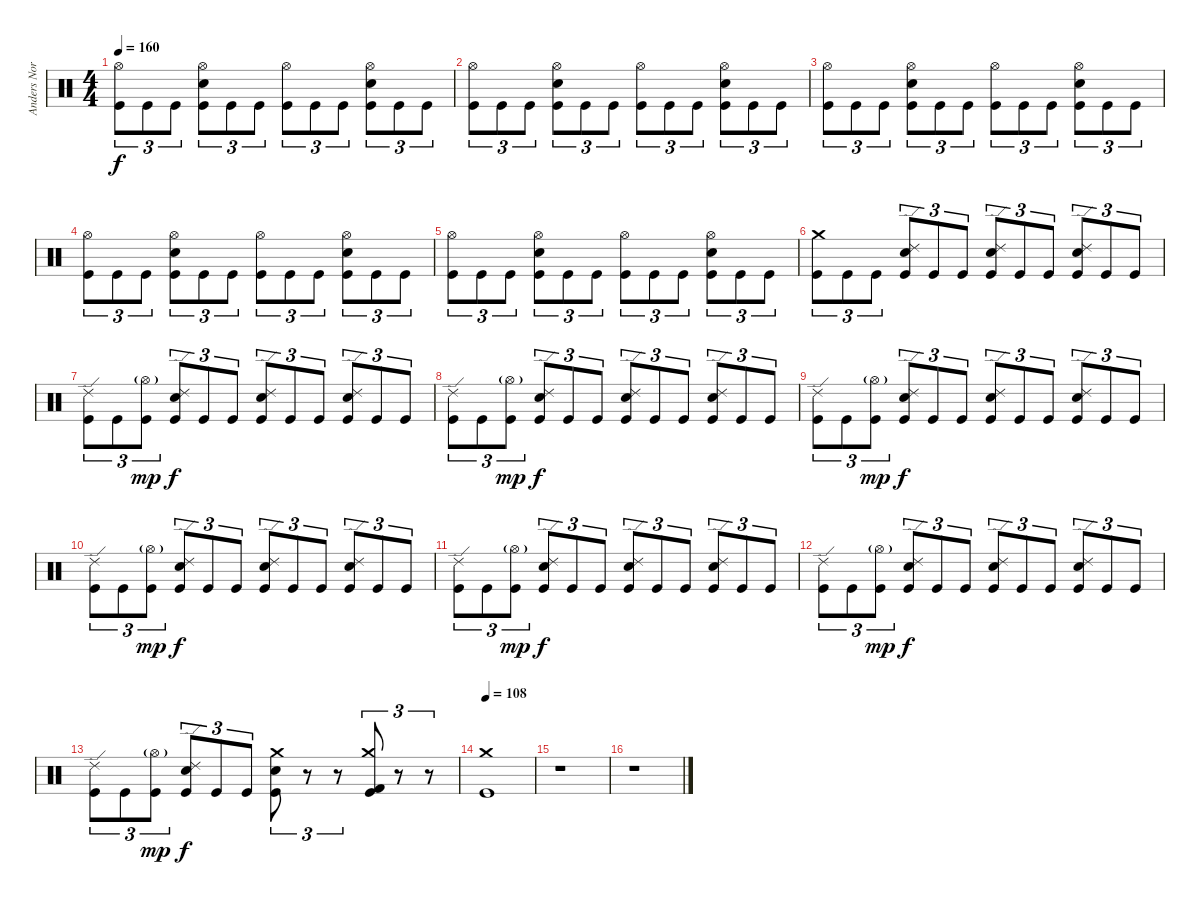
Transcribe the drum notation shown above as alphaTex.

\track ("Anders Nordin" "Anders Nor") {instrument percussion}
\staff {score}
\articulation defaults
\ts (4 4)
\tempo 160
\clef neutral
\ks c
("Hi-Hat (open)" "Kick (hit)").8{tu (3 2) dy f} "Kick (hit)".8{tu (3 2)} "Kick (hit)".8{tu (3 2)} ("Hi-Hat (open)" "Electric Snare (hit)" "Kick (hit)").8{tu (3 2)} "Kick (hit)".8{tu (3 2)} "Kick (hit)".8{tu (3 2)} ("Hi-Hat (open)" "Kick (hit)").8{tu (3 2)} "Kick (hit)".8{tu (3 2)} "Kick (hit)".8{tu (3 2)} ("Hi-Hat (open)" "Electric Snare (hit)" "Kick (hit)").8{tu (3 2)} "Kick (hit)".8{tu (3 2)} "Kick (hit)".8{tu (3 2)} |
("Hi-Hat (open)" "Kick (hit)").8{tu (3 2)} "Kick (hit)".8{tu (3 2)} "Kick (hit)".8{tu (3 2)} ("Hi-Hat (open)" "Electric Snare (hit)" "Kick (hit)").8{tu (3 2)} "Kick (hit)".8{tu (3 2)} "Kick (hit)".8{tu (3 2)} ("Hi-Hat (open)" "Kick (hit)").8{tu (3 2)} "Kick (hit)".8{tu (3 2)} "Kick (hit)".8{tu (3 2)} ("Hi-Hat (open)" "Electric Snare (hit)" "Kick (hit)").8{tu (3 2)} "Kick (hit)".8{tu (3 2)} "Kick (hit)".8{tu (3 2)} |
("Hi-Hat (open)" "Kick (hit)").8{tu (3 2)} "Kick (hit)".8{tu (3 2)} "Kick (hit)".8{tu (3 2)} ("Hi-Hat (open)" "Electric Snare (hit)" "Kick (hit)").8{tu (3 2)} "Kick (hit)".8{tu (3 2)} "Kick (hit)".8{tu (3 2)} ("Hi-Hat (open)" "Kick (hit)").8{tu (3 2)} "Kick (hit)".8{tu (3 2)} "Kick (hit)".8{tu (3 2)} ("Hi-Hat (open)" "Electric Snare (hit)" "Kick (hit)").8{tu (3 2)} "Kick (hit)".8{tu (3 2)} "Kick (hit)".8{tu (3 2)} |
("Hi-Hat (open)" "Kick (hit)").8{tu (3 2)} "Kick (hit)".8{tu (3 2)} "Kick (hit)".8{tu (3 2)} ("Hi-Hat (open)" "Electric Snare (hit)" "Kick (hit)").8{tu (3 2)} "Kick (hit)".8{tu (3 2)} "Kick (hit)".8{tu (3 2)} ("Hi-Hat (open)" "Kick (hit)").8{tu (3 2)} "Kick (hit)".8{tu (3 2)} "Kick (hit)".8{tu (3 2)} ("Hi-Hat (open)" "Electric Snare (hit)" "Kick (hit)").8{tu (3 2)} "Kick (hit)".8{tu (3 2)} "Kick (hit)".8{tu (3 2)} |
("Hi-Hat (open)" "Kick (hit)").8{tu (3 2)} "Kick (hit)".8{tu (3 2)} "Kick (hit)".8{tu (3 2)} ("Hi-Hat (open)" "Electric Snare (hit)" "Kick (hit)").8{tu (3 2)} "Kick (hit)".8{tu (3 2)} "Kick (hit)".8{tu (3 2)} ("Hi-Hat (open)" "Kick (hit)").8{tu (3 2)} "Kick (hit)".8{tu (3 2)} "Kick (hit)".8{tu (3 2)} ("Hi-Hat (open)" "Electric Snare (hit)" "Kick (hit)").8{tu (3 2)} "Kick (hit)".8{tu (3 2)} "Kick (hit)".8{tu (3 2)} |
("Crash medium (hit)" "Kick (hit)").8{tu (3 2)} "Kick (hit)".8{tu (3 2)} "Kick (hit)".8{tu (3 2)} ("Ride (edge) 2" "Electric Snare (hit)" "Kick (hit)").8{tu (3 2)} "Kick (hit)".8{tu (3 2)} "Kick (hit)".8{tu (3 2)} ("Ride (edge) 2" "Electric Snare (hit)" "Kick (hit)").8{tu (3 2)} "Kick (hit)".8{tu (3 2)} "Kick (hit)".8{tu (3 2)} ("Ride (edge) 2" "Electric Snare (hit)" "Kick (hit)").8{tu (3 2)} "Kick (hit)".8{tu (3 2)} "Kick (hit)".8{tu (3 2)} |
("Ride (edge) 2" "Kick (hit)").8{tu (3 2)} "Kick (hit)".8{tu (3 2)} ("Hi-Hat (open)"{g} "Kick (hit)").8{tu (3 2) dy mp} ("Ride (edge) 2" "Electric Snare (hit)" "Kick (hit)").8{tu (3 2) dy f} "Kick (hit)".8{tu (3 2)} "Kick (hit)".8{tu (3 2)} ("Ride (edge) 2" "Electric Snare (hit)" "Kick (hit)").8{tu (3 2)} "Kick (hit)".8{tu (3 2)} "Kick (hit)".8{tu (3 2)} ("Ride (edge) 2" "Electric Snare (hit)" "Kick (hit)").8{tu (3 2)} "Kick (hit)".8{tu (3 2)} "Kick (hit)".8{tu (3 2)} |
("Ride (edge) 2" "Kick (hit)").8{tu (3 2)} "Kick (hit)".8{tu (3 2)} ("Hi-Hat (open)"{g} "Kick (hit)").8{tu (3 2) dy mp} ("Ride (edge) 2" "Electric Snare (hit)" "Kick (hit)").8{tu (3 2) dy f} "Kick (hit)".8{tu (3 2)} "Kick (hit)".8{tu (3 2)} ("Ride (edge) 2" "Electric Snare (hit)" "Kick (hit)").8{tu (3 2)} "Kick (hit)".8{tu (3 2)} "Kick (hit)".8{tu (3 2)} ("Ride (edge) 2" "Electric Snare (hit)" "Kick (hit)").8{tu (3 2)} "Kick (hit)".8{tu (3 2)} "Kick (hit)".8{tu (3 2)} |
("Ride (edge) 2" "Kick (hit)").8{tu (3 2)} "Kick (hit)".8{tu (3 2)} ("Hi-Hat (open)"{g} "Kick (hit)").8{tu (3 2) dy mp} ("Ride (edge) 2" "Electric Snare (hit)" "Kick (hit)").8{tu (3 2) dy f} "Kick (hit)".8{tu (3 2)} "Kick (hit)".8{tu (3 2)} ("Ride (edge) 2" "Electric Snare (hit)" "Kick (hit)").8{tu (3 2)} "Kick (hit)".8{tu (3 2)} "Kick (hit)".8{tu (3 2)} ("Ride (edge) 2" "Electric Snare (hit)" "Kick (hit)").8{tu (3 2)} "Kick (hit)".8{tu (3 2)} "Kick (hit)".8{tu (3 2)} |
("Ride (edge) 2" "Kick (hit)").8{tu (3 2)} "Kick (hit)".8{tu (3 2)} ("Hi-Hat (open)"{g} "Kick (hit)").8{tu (3 2) dy mp} ("Ride (edge) 2" "Electric Snare (hit)" "Kick (hit)").8{tu (3 2) dy f} "Kick (hit)".8{tu (3 2)} "Kick (hit)".8{tu (3 2)} ("Ride (edge) 2" "Electric Snare (hit)" "Kick (hit)").8{tu (3 2)} "Kick (hit)".8{tu (3 2)} "Kick (hit)".8{tu (3 2)} ("Ride (edge) 2" "Electric Snare (hit)" "Kick (hit)").8{tu (3 2)} "Kick (hit)".8{tu (3 2)} "Kick (hit)".8{tu (3 2)} |
("Ride (edge) 2" "Kick (hit)").8{tu (3 2)} "Kick (hit)".8{tu (3 2)} ("Hi-Hat (open)"{g} "Kick (hit)").8{tu (3 2) dy mp} ("Ride (edge) 2" "Electric Snare (hit)" "Kick (hit)").8{tu (3 2) dy f} "Kick (hit)".8{tu (3 2)} "Kick (hit)".8{tu (3 2)} ("Ride (edge) 2" "Electric Snare (hit)" "Kick (hit)").8{tu (3 2)} "Kick (hit)".8{tu (3 2)} "Kick (hit)".8{tu (3 2)} ("Ride (edge) 2" "Electric Snare (hit)" "Kick (hit)").8{tu (3 2)} "Kick (hit)".8{tu (3 2)} "Kick (hit)".8{tu (3 2)} |
("Ride (edge) 2" "Kick (hit)").8{tu (3 2)} "Kick (hit)".8{tu (3 2)} ("Hi-Hat (open)"{g} "Kick (hit)").8{tu (3 2) dy mp} ("Ride (edge) 2" "Electric Snare (hit)" "Kick (hit)").8{tu (3 2) dy f} "Kick (hit)".8{tu (3 2)} "Kick (hit)".8{tu (3 2)} ("Ride (edge) 2" "Electric Snare (hit)" "Kick (hit)").8{tu (3 2)} "Kick (hit)".8{tu (3 2)} "Kick (hit)".8{tu (3 2)} ("Ride (edge) 2" "Electric Snare (hit)" "Kick (hit)").8{tu (3 2)} "Kick (hit)".8{tu (3 2)} "Kick (hit)".8{tu (3 2)} |
("Ride (edge) 2" "Kick (hit)").8{tu (3 2)} "Kick (hit)".8{tu (3 2)} ("Hi-Hat (open)"{g} "Kick (hit)").8{tu (3 2) dy mp} ("Ride (edge) 2" "Electric Snare (hit)" "Kick (hit)").8{tu (3 2) dy f} "Kick (hit)".8{tu (3 2)} "Kick (hit)".8{tu (3 2)} ("Crash medium (hit)" "Electric Snare (hit)" "Kick (hit)").8{tu (3 2)} r.8{tu (3 2)} r.8{tu (3 2)} ("Crash medium (hit)" "Kick (hit) 2" "Kick (hit)").8{tu (3 2)} r.8{tu (3 2)} r.8{tu (3 2)} |
\tempo 108
("Crash medium (hit)" "Kick (hit)").1 |
r.1 |
r.1
